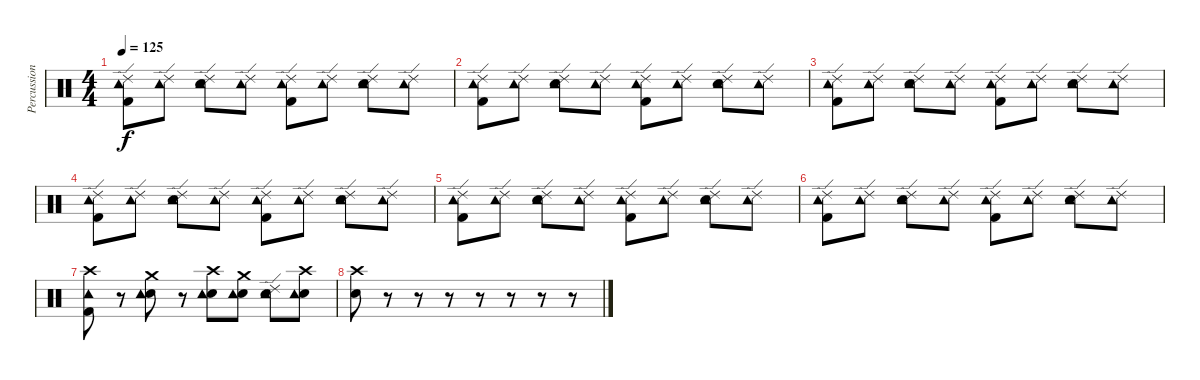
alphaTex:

\track ("Percussions" "Percussion") {instrument percussion}
\staff {score}
\articulation defaults
\ts (4 4)
\tempo 125
\clef neutral
\ks c
("Ride (edge) 2" "Kick (hit) 2" "Tambourine (hit)").8{dy f} ("Ride (edge) 2" "Tambourine (hit)").8 ("Ride (edge) 2" "Snare (hit) 2" "Tambourine (hit)").8 ("Ride (edge) 2" "Tambourine (hit)").8 ("Ride (edge) 2" "Kick (hit) 2" "Tambourine (hit)").8 ("Ride (edge) 2" "Tambourine (hit)").8 ("Ride (edge) 2" "Snare (hit) 2" "Tambourine (hit)").8 ("Ride (edge) 2" "Tambourine (hit)").8 |
("Ride (edge) 2" "Kick (hit) 2" "Tambourine (hit)").8 ("Ride (edge) 2" "Tambourine (hit)").8 ("Ride (edge) 2" "Snare (hit) 2" "Tambourine (hit)").8 ("Ride (edge) 2" "Tambourine (hit)").8 ("Ride (edge) 2" "Kick (hit) 2" "Tambourine (hit)").8 ("Ride (edge) 2" "Tambourine (hit)").8 ("Ride (edge) 2" "Snare (hit) 2" "Tambourine (hit)").8 ("Ride (edge) 2" "Tambourine (hit)").8 |
("Ride (edge) 2" "Kick (hit) 2" "Tambourine (hit)").8 ("Ride (edge) 2" "Tambourine (hit)").8 ("Ride (edge) 2" "Snare (hit) 2" "Tambourine (hit)").8 ("Ride (edge) 2" "Tambourine (hit)").8 ("Ride (edge) 2" "Kick (hit) 2" "Tambourine (hit)").8 ("Ride (edge) 2" "Tambourine (hit)").8 ("Ride (edge) 2" "Snare (hit) 2" "Tambourine (hit)").8 ("Ride (edge) 2" "Tambourine (hit)").8 |
("Ride (edge) 2" "Kick (hit) 2" "Tambourine (hit)").8 ("Ride (edge) 2" "Tambourine (hit)").8 ("Ride (edge) 2" "Snare (hit) 2" "Tambourine (hit)").8 ("Ride (edge) 2" "Tambourine (hit)").8 ("Ride (edge) 2" "Kick (hit) 2" "Tambourine (hit)").8 ("Ride (edge) 2" "Tambourine (hit)").8 ("Ride (edge) 2" "Snare (hit) 2" "Tambourine (hit)").8 ("Ride (edge) 2" "Tambourine (hit)").8 |
("Ride (edge) 2" "Kick (hit) 2" "Tambourine (hit)").8 ("Ride (edge) 2" "Tambourine (hit)").8 ("Ride (edge) 2" "Snare (hit) 2" "Tambourine (hit)").8 ("Ride (edge) 2" "Tambourine (hit)").8 ("Ride (edge) 2" "Kick (hit) 2" "Tambourine (hit)").8 ("Ride (edge) 2" "Tambourine (hit)").8 ("Ride (edge) 2" "Snare (hit) 2" "Tambourine (hit)").8 ("Ride (edge) 2" "Tambourine (hit)").8 |
("Ride (edge) 2" "Kick (hit) 2" "Tambourine (hit)").8 ("Ride (edge) 2" "Tambourine (hit)").8 ("Ride (edge) 2" "Snare (hit) 2" "Tambourine (hit)").8 ("Ride (edge) 2" "Tambourine (hit)").8 ("Ride (edge) 2" "Kick (hit) 2" "Tambourine (hit)").8 ("Ride (edge) 2" "Tambourine (hit)").8 ("Ride (edge) 2" "Snare (hit) 2" "Tambourine (hit)").8 ("Ride (edge) 2" "Tambourine (hit)").8 |
("Crash high (hit)" "Kick (hit) 2" "Tambourine (hit)").8 r.8 ("Crash medium (hit)" "Snare (hit) 2" "Tambourine (hit)").8 r.8 ("Crash high (hit)" "Snare (hit) 2" "Tambourine (hit)").8 ("Crash medium (hit)" "Snare (hit) 2" "Tambourine (hit)").8 ("Ride (edge) 2" "Snare (hit) 2" "Tambourine (hit)").8 ("Crash high (hit)" "Snare (hit) 2" "Tambourine (hit)").8 |
("Crash high (hit)" "Snare (hit) 2").8 r.8 r.8 r.8 r.8 r.8 r.8 r.8
